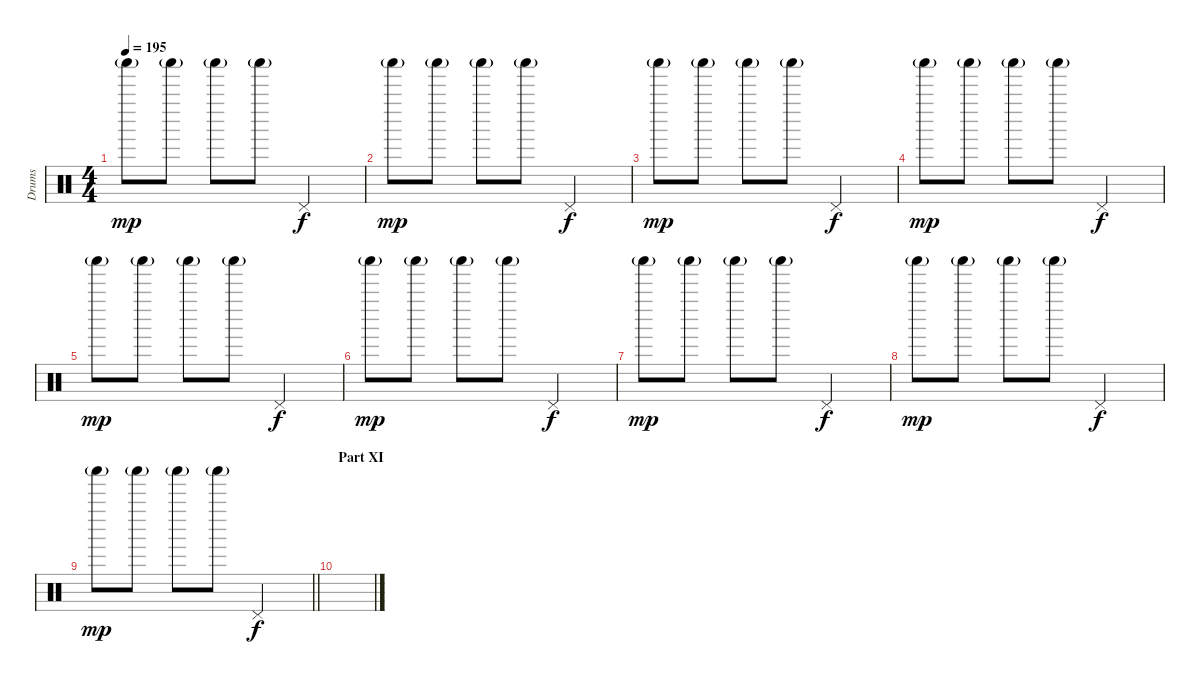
\track ("Drums" "Drums") {instrument percussion}
\staff {score}
\articulation defaults
\ts (4 4)
\tempo 195
\clef neutral
\ks c "Shaker (hit)"{g}.8{dy mp} "Shaker (hit)"{g}.8 "Shaker (hit)"{g}.8 "Shaker (hit)"{g}.8 "Pedal Hi-Hat (hit)".2{dy f}
|
"Shaker (hit)"{g}.8{dy mp} "Shaker (hit)"{g}.8 "Shaker (hit)"{g}.8 "Shaker (hit)"{g}.8 "Pedal Hi-Hat (hit)".2{dy f} |
"Shaker (hit)"{g}.8{dy mp} "Shaker (hit)"{g}.8 "Shaker (hit)"{g}.8 "Shaker (hit)"{g}.8 "Pedal Hi-Hat (hit)".2{dy f} |
"Shaker (hit)"{g}.8{dy mp} "Shaker (hit)"{g}.8 "Shaker (hit)"{g}.8 "Shaker (hit)"{g}.8 "Pedal Hi-Hat (hit)".2{dy f} |
"Shaker (hit)"{g}.8{dy mp} "Shaker (hit)"{g}.8 "Shaker (hit)"{g}.8 "Shaker (hit)"{g}.8 "Pedal Hi-Hat (hit)".2{dy f} |
"Shaker (hit)"{g}.8{dy mp} "Shaker (hit)"{g}.8 "Shaker (hit)"{g}.8 "Shaker (hit)"{g}.8 "Pedal Hi-Hat (hit)".2{dy f} |
"Shaker (hit)"{g}.8{dy mp} "Shaker (hit)"{g}.8 "Shaker (hit)"{g}.8 "Shaker (hit)"{g}.8 "Pedal Hi-Hat (hit)".2{dy f} |
"Shaker (hit)"{g}.8{dy mp} "Shaker (hit)"{g}.8 "Shaker (hit)"{g}.8 "Shaker (hit)"{g}.8 "Pedal Hi-Hat (hit)".2{dy f} |
\barLineRight lightlight "Shaker (hit)"{g}.8{dy mp} "Shaker (hit)"{g}.8 "Shaker (hit)"{g}.8 "Shaker (hit)"{g}.8 "Pedal Hi-Hat (hit)".2{dy f}
|
\section ("" "Part XI")
